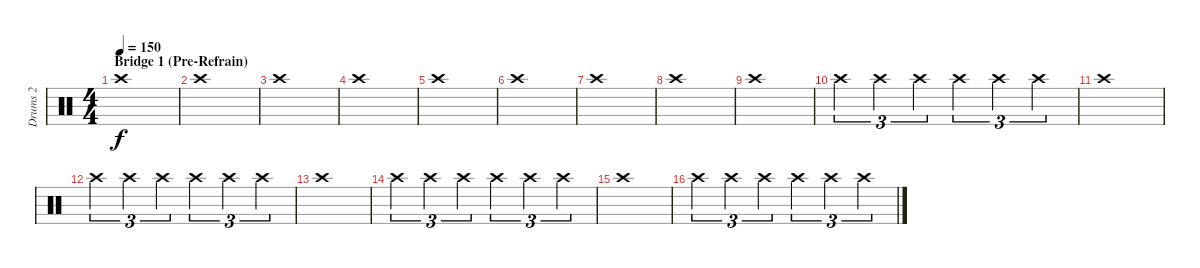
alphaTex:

\track ("Drums 2" "Drums 2") {instrument percussion}
\staff {score}
\articulation defaults
\ts (4 4)
\section ("" "Bridge 1 (Pre-Refrain)")
\tempo 150
\clef neutral
\ks c "Crash high (hit)".1{dy f}
|
"Crash high (hit)".1 |
"Crash high (hit)".1 |
"Crash high (hit)".1 |
"Crash high (hit)".1 |
"Crash high (hit)".1 |
"Crash high (hit)".1 |
"Crash high (hit)".1 |
"Crash high (hit)".1 |
"Crash high (hit)".4{tu (3 2)} "Crash high (hit)".4{tu (3 2)} "Crash high (hit)".4{tu (3 2)} "Crash high (hit)".4{tu (3 2)} "Crash high (hit)".4{tu (3 2)} "Crash high (hit)".4{tu (3 2)} |
"Crash high (hit)".1 |
"Crash high (hit)".4{tu (3 2)} "Crash high (hit)".4{tu (3 2)} "Crash high (hit)".4{tu (3 2)} "Crash high (hit)".4{tu (3 2)} "Crash high (hit)".4{tu (3 2)} "Crash high (hit)".4{tu (3 2)} |
"Crash high (hit)".1 |
"Crash high (hit)".4{tu (3 2)} "Crash high (hit)".4{tu (3 2)} "Crash high (hit)".4{tu (3 2)} "Crash high (hit)".4{tu (3 2)} "Crash high (hit)".4{tu (3 2)} "Crash high (hit)".4{tu (3 2)} |
"Crash high (hit)".1 |
"Crash high (hit)".4{tu (3 2)} "Crash high (hit)".4{tu (3 2)} "Crash high (hit)".4{tu (3 2)} "Crash high (hit)".4{tu (3 2)} "Crash high (hit)".4{tu (3 2)} "Crash high (hit)".4{tu (3 2)}
